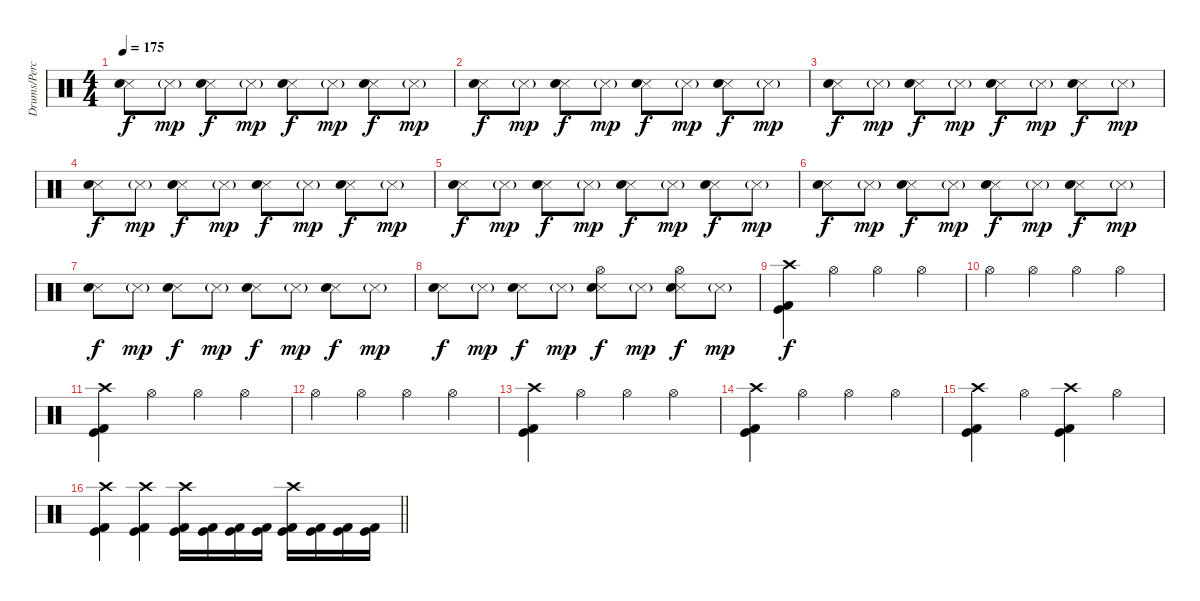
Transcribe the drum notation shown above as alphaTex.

\track ("Drums/Percussion" "Drums/Perc") {instrument percussion}
\staff {score}
\articulation defaults
\ts (4 4)
\tempo 175
\clef neutral
\ks c
("Metronome (hit)" "Metronome (bell)").8{dy f} "Metronome (hit)"{g}.8{dy mp} ("Metronome (hit)" "Metronome (bell)").8{dy f} "Metronome (hit)"{g}.8{dy mp} ("Metronome (hit)" "Metronome (bell)").8{dy f} "Metronome (hit)"{g}.8{dy mp} ("Metronome (hit)" "Metronome (bell)").8{dy f} "Metronome (hit)"{g}.8{dy mp} |
("Metronome (hit)" "Metronome (bell)").8{dy f} "Metronome (hit)"{g}.8{dy mp} ("Metronome (hit)" "Metronome (bell)").8{dy f} "Metronome (hit)"{g}.8{dy mp} ("Metronome (hit)" "Metronome (bell)").8{dy f} "Metronome (hit)"{g}.8{dy mp} ("Metronome (hit)" "Metronome (bell)").8{dy f} "Metronome (hit)"{g}.8{dy mp} |
("Metronome (hit)" "Metronome (bell)").8{dy f} "Metronome (hit)"{g}.8{dy mp} ("Metronome (hit)" "Metronome (bell)").8{dy f} "Metronome (hit)"{g}.8{dy mp} ("Metronome (hit)" "Metronome (bell)").8{dy f} "Metronome (hit)"{g}.8{dy mp} ("Metronome (hit)" "Metronome (bell)").8{dy f} "Metronome (hit)"{g}.8{dy mp} |
("Metronome (hit)" "Metronome (bell)").8{dy f} "Metronome (hit)"{g}.8{dy mp} ("Metronome (hit)" "Metronome (bell)").8{dy f} "Metronome (hit)"{g}.8{dy mp} ("Metronome (hit)" "Metronome (bell)").8{dy f} "Metronome (hit)"{g}.8{dy mp} ("Metronome (hit)" "Metronome (bell)").8{dy f} "Metronome (hit)"{g}.8{dy mp} |
("Metronome (hit)" "Metronome (bell)").8{dy f} "Metronome (hit)"{g}.8{dy mp} ("Metronome (hit)" "Metronome (bell)").8{dy f} "Metronome (hit)"{g}.8{dy mp} ("Metronome (hit)" "Metronome (bell)").8{dy f} "Metronome (hit)"{g}.8{dy mp} ("Metronome (hit)" "Metronome (bell)").8{dy f} "Metronome (hit)"{g}.8{dy mp} |
("Metronome (hit)" "Metronome (bell)").8{dy f} "Metronome (hit)"{g}.8{dy mp} ("Metronome (hit)" "Metronome (bell)").8{dy f} "Metronome (hit)"{g}.8{dy mp} ("Metronome (hit)" "Metronome (bell)").8{dy f} "Metronome (hit)"{g}.8{dy mp} ("Metronome (hit)" "Metronome (bell)").8{dy f} "Metronome (hit)"{g}.8{dy mp} |
("Metronome (hit)" "Metronome (bell)").8{dy f} "Metronome (hit)"{g}.8{dy mp} ("Metronome (hit)" "Metronome (bell)").8{dy f} "Metronome (hit)"{g}.8{dy mp} ("Metronome (hit)" "Metronome (bell)").8{dy f} "Metronome (hit)"{g}.8{dy mp} ("Metronome (hit)" "Metronome (bell)").8{dy f} "Metronome (hit)"{g}.8{dy mp} |
("Metronome (hit)" "Metronome (bell)").8{dy f} "Metronome (hit)"{g}.8{dy mp} ("Metronome (hit)" "Metronome (bell)").8{dy f} "Metronome (hit)"{g}.8{dy mp} ("Metronome (hit)" "Metronome (bell)" "Hi-Hat (open)").8{dy f} "Metronome (hit)"{g}.8{dy mp} ("Metronome (hit)" "Metronome (bell)" "Hi-Hat (open)").8{dy f} "Metronome (hit)"{g}.8{dy mp} |
("Crash high (hit)" "Kick (hit)" "Kick (hit) 2").4{dy f} "Hi-Hat (open)".4 "Hi-Hat (open)".4 "Hi-Hat (open)".4 |
"Hi-Hat (open)".4 "Hi-Hat (open)".4 "Hi-Hat (open)".4 "Hi-Hat (open)".4 |
("Crash high (hit)" "Kick (hit)" "Kick (hit) 2").4 "Hi-Hat (open)".4 "Hi-Hat (open)".4 "Hi-Hat (open)".4 |
"Hi-Hat (open)".4 "Hi-Hat (open)".4 "Hi-Hat (open)".4 "Hi-Hat (open)".4 |
("Crash high (hit)" "Kick (hit)" "Kick (hit) 2").4 "Hi-Hat (open)".4 "Hi-Hat (open)".4 "Hi-Hat (open)".4 |
("Crash high (hit)" "Kick (hit)" "Kick (hit) 2").4 "Hi-Hat (open)".4 "Hi-Hat (open)".4 "Hi-Hat (open)".4 |
("Crash high (hit)" "Kick (hit)" "Kick (hit) 2").4 "Hi-Hat (open)".4 ("Crash high (hit)" "Kick (hit)" "Kick (hit) 2").4 "Hi-Hat (open)".4 |
\barLineRight lightlight
("Crash high (hit)" "Kick (hit)" "Kick (hit) 2").4 ("Crash high (hit)" "Kick (hit)" "Kick (hit) 2").4 ("Crash high (hit)" "Kick (hit)" "Kick (hit) 2").16 ("Kick (hit)" "Kick (hit) 2").16 ("Kick (hit)" "Kick (hit) 2").16 ("Kick (hit)" "Kick (hit) 2").16 ("Crash high (hit)" "Kick (hit)" "Kick (hit) 2").16 ("Kick (hit)" "Kick (hit) 2").16 ("Kick (hit)" "Kick (hit) 2").16 ("Kick (hit)" "Kick (hit) 2").16
